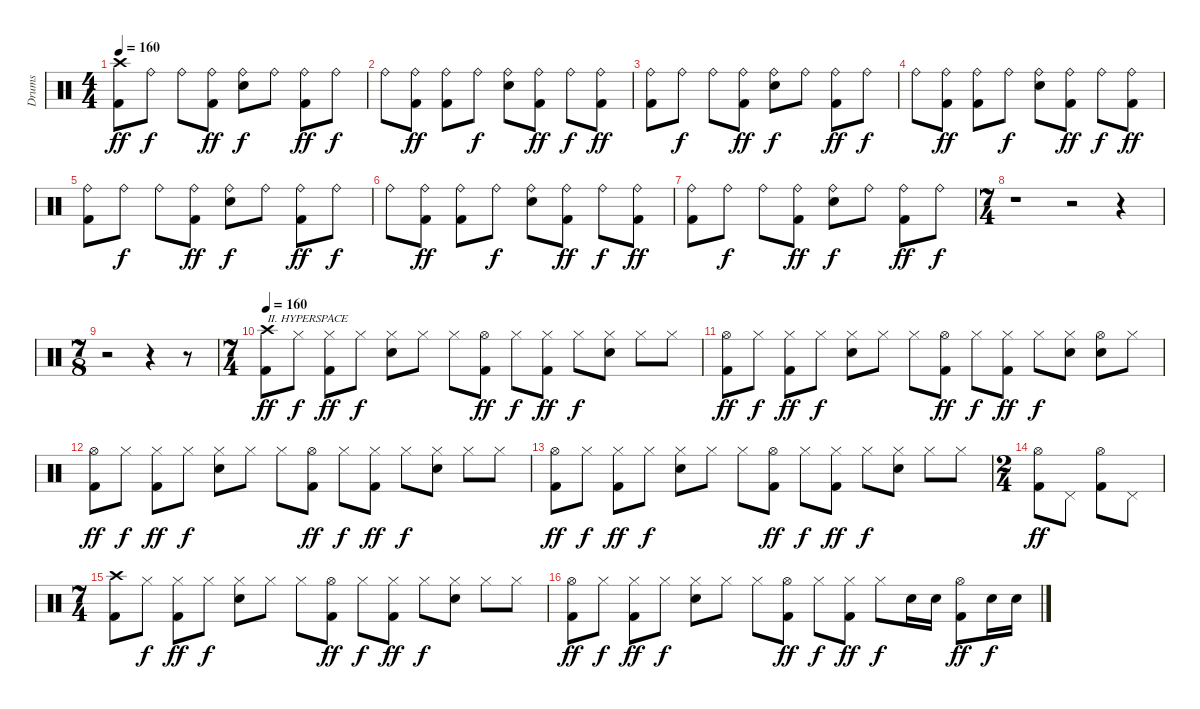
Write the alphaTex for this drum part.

\track ("Drums" "Drums") {instrument percussion}
\staff {score}
\articulation defaults
\ts (4 4)
\tempo 160
\clef neutral
\ks c
("Crash high (hit)" "Kick (hit) 2").8{dy ff} "Ride (bell)".8{dy f} "Ride (bell)".8 ("Ride (bell)" "Kick (hit) 2").8{dy ff} ("Ride (bell)" "Snare (hit) 2").8{dy f} "Ride (bell)".8 ("Ride (bell)" "Kick (hit) 2").8{dy ff} "Ride (bell)".8{dy f} |
"Ride (bell)".8 ("Ride (bell)" "Kick (hit) 2").8{dy ff} ("Ride (bell)" "Kick (hit) 2").8 "Ride (bell)".8{dy f} ("Ride (bell)" "Snare (hit) 2").8 ("Ride (bell)" "Kick (hit) 2").8{dy ff} "Ride (bell)".8{dy f} ("Ride (bell)" "Kick (hit) 2").8{dy ff} |
("Ride (bell)" "Kick (hit) 2").8 "Ride (bell)".8{dy f} "Ride (bell)".8 ("Ride (bell)" "Kick (hit) 2").8{dy ff} ("Ride (bell)" "Snare (hit) 2").8{dy f} "Ride (bell)".8 ("Ride (bell)" "Kick (hit) 2").8{dy ff} "Ride (bell)".8{dy f} |
"Ride (bell)".8 ("Ride (bell)" "Kick (hit) 2").8{dy ff} ("Ride (bell)" "Kick (hit) 2").8 "Ride (bell)".8{dy f} ("Ride (bell)" "Snare (hit) 2").8 ("Ride (bell)" "Kick (hit) 2").8{dy ff} "Ride (bell)".8{dy f} ("Ride (bell)" "Kick (hit) 2").8{dy ff} |
("Ride (bell)" "Kick (hit) 2").8 "Ride (bell)".8{dy f} "Ride (bell)".8 ("Ride (bell)" "Kick (hit) 2").8{dy ff} ("Ride (bell)" "Snare (hit) 2").8{dy f} "Ride (bell)".8 ("Ride (bell)" "Kick (hit) 2").8{dy ff} "Ride (bell)".8{dy f} |
"Ride (bell)".8 ("Ride (bell)" "Kick (hit) 2").8{dy ff} ("Ride (bell)" "Kick (hit) 2").8 "Ride (bell)".8{dy f} ("Ride (bell)" "Snare (hit) 2").8 ("Ride (bell)" "Kick (hit) 2").8{dy ff} "Ride (bell)".8{dy f} ("Ride (bell)" "Kick (hit) 2").8{dy ff} |
("Ride (bell)" "Kick (hit) 2").8 "Ride (bell)".8{dy f} "Ride (bell)".8 ("Ride (bell)" "Kick (hit) 2").8{dy ff} ("Ride (bell)" "Snare (hit) 2").8{dy f} "Ride (bell)".8 ("Ride (bell)" "Kick (hit) 2").8{dy ff} "Ride (bell)".8{dy f} |
\ts (7 4)
r.1 r.2 r.4 |
\ts (7 8)
r.2 r.4 r.8 |
\ts (7 4)
\tempo 160
("Crash high (hit)" "Kick (hit) 2").8{txt "II. HYPERSPACE" dy ff} "Hi-Hat (closed)".8{dy f} ("Hi-Hat (closed)" "Kick (hit) 2").8{dy ff} "Hi-Hat (closed)".8{dy f} ("Hi-Hat (closed)" "Snare (hit) 2").8 "Hi-Hat (closed)".8 "Hi-Hat (closed)".8 ("Hi-Hat (open)" "Kick (hit) 2").8{dy ff} "Hi-Hat (closed)".8{dy f} ("Hi-Hat (closed)" "Kick (hit) 2").8{dy ff} "Hi-Hat (closed)".8{dy f} ("Hi-Hat (closed)" "Snare (hit) 2").8 "Hi-Hat (closed)".8 "Hi-Hat (closed)".8 |
("Hi-Hat (open)" "Kick (hit) 2").8{dy ff} "Hi-Hat (closed)".8{dy f} ("Hi-Hat (closed)" "Kick (hit) 2").8{dy ff} "Hi-Hat (closed)".8{dy f} ("Hi-Hat (closed)" "Snare (hit) 2").8 "Hi-Hat (closed)".8 "Hi-Hat (closed)".8 ("Hi-Hat (open)" "Kick (hit) 2").8{dy ff} "Hi-Hat (closed)".8{dy f} ("Hi-Hat (closed)" "Kick (hit) 2").8{dy ff} "Hi-Hat (closed)".8{dy f} ("Hi-Hat (closed)" "Snare (hit) 2").8 ("Hi-Hat (open)" "Snare (hit) 2").8 "Hi-Hat (closed)".8 |
("Hi-Hat (open)" "Kick (hit) 2").8{dy ff} "Hi-Hat (closed)".8{dy f} ("Hi-Hat (closed)" "Kick (hit) 2").8{dy ff} "Hi-Hat (closed)".8{dy f} ("Hi-Hat (closed)" "Snare (hit) 2").8 "Hi-Hat (closed)".8 "Hi-Hat (closed)".8 ("Hi-Hat (open)" "Kick (hit) 2").8{dy ff} "Hi-Hat (closed)".8{dy f} ("Hi-Hat (closed)" "Kick (hit) 2").8{dy ff} "Hi-Hat (closed)".8{dy f} ("Hi-Hat (closed)" "Snare (hit) 2").8 "Hi-Hat (closed)".8 "Hi-Hat (closed)".8 |
("Hi-Hat (open)" "Kick (hit) 2").8{dy ff} "Hi-Hat (closed)".8{dy f} ("Hi-Hat (closed)" "Kick (hit) 2").8{dy ff} "Hi-Hat (closed)".8{dy f} ("Hi-Hat (closed)" "Snare (hit) 2").8 "Hi-Hat (closed)".8 "Hi-Hat (closed)".8 ("Hi-Hat (open)" "Kick (hit) 2").8{dy ff} "Hi-Hat (closed)".8{dy f} ("Hi-Hat (closed)" "Kick (hit) 2").8{dy ff} "Hi-Hat (closed)".8{dy f} ("Hi-Hat (closed)" "Snare (hit) 2").8 "Hi-Hat (closed)".8 "Hi-Hat (closed)".8 |
\ts (2 4)
("Hi-Hat (open)" "Kick (hit) 2").8{dy ff} "Pedal Hi-Hat (hit)".8 ("Hi-Hat (open)" "Kick (hit) 2").8 "Pedal Hi-Hat (hit)".8 |
\ts (7 4)
("Crash high (hit)" "Kick (hit) 2").8 "Hi-Hat (closed)".8{dy f} ("Hi-Hat (closed)" "Kick (hit) 2").8{dy ff} "Hi-Hat (closed)".8{dy f} ("Hi-Hat (closed)" "Snare (hit) 2").8 "Hi-Hat (closed)".8 "Hi-Hat (closed)".8 ("Hi-Hat (open)" "Kick (hit) 2").8{dy ff} "Hi-Hat (closed)".8{dy f} ("Hi-Hat (closed)" "Kick (hit) 2").8{dy ff} "Hi-Hat (closed)".8{dy f} ("Hi-Hat (closed)" "Snare (hit) 2").8 "Hi-Hat (closed)".8 "Hi-Hat (closed)".8 |
("Hi-Hat (open)" "Kick (hit) 2").8{dy ff} "Hi-Hat (closed)".8{dy f} ("Hi-Hat (closed)" "Kick (hit) 2").8{dy ff} "Hi-Hat (closed)".8{dy f} ("Hi-Hat (closed)" "Snare (hit) 2").8 "Hi-Hat (closed)".8 "Hi-Hat (closed)".8 ("Hi-Hat (open)" "Kick (hit) 2").8{dy ff} "Hi-Hat (closed)".8{dy f} ("Hi-Hat (closed)" "Kick (hit) 2").8{dy ff} "Hi-Hat (closed)".8{dy f} "Snare (hit) 2".16 "Snare (hit) 2".16 ("Hi-Hat (open)" "Kick (hit) 2").8{dy ff} "Snare (hit) 2".16{dy f} "Snare (hit) 2".16
